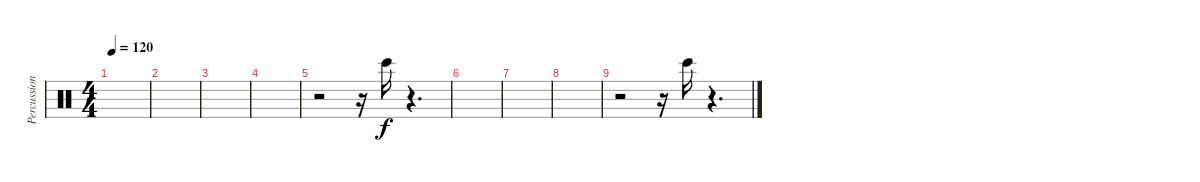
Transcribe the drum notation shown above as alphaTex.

\track ("Percussions" "Percussion") {instrument percussion}
\staff {score}
\articulation defaults
\ts (4 4)
\tempo 120
\clef neutral
\ks c
|
|
|
|
r.2 r.16 "Bongo High (hit)".16 r.4{d} |
|
|
|
r.2 r.16 "Bongo High (hit)".16 r.4{d}
